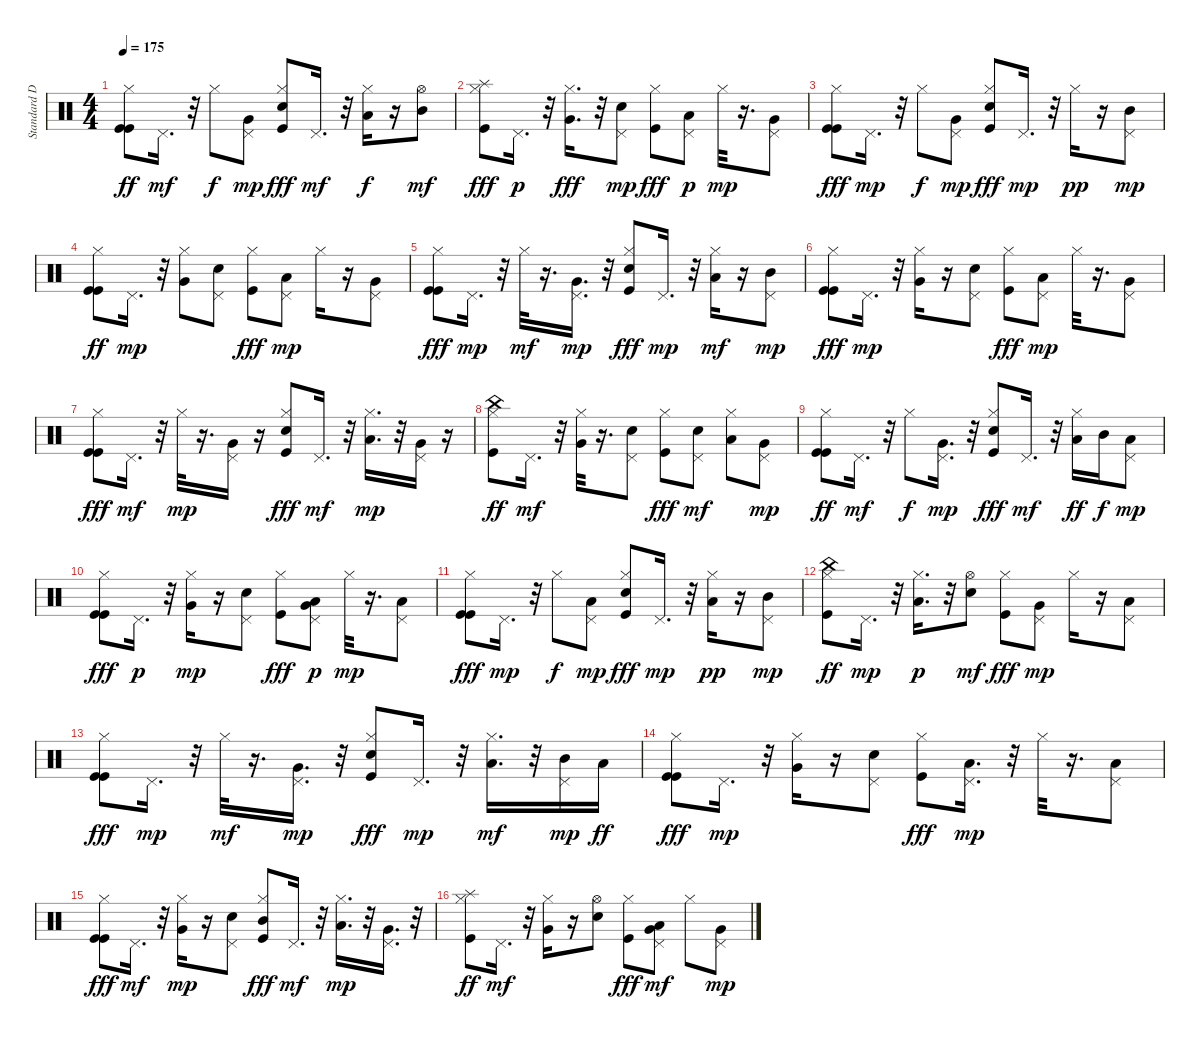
\track ("Standard Drums" "Standard D") {instrument percussion}
\staff {score}
\articulation defaults
\ts (4 4)
\tempo 175
\clef neutral
\ks c
("Kick (hit)" "Kick (hit)" "Hi-Hat (closed)").8{dy ff} "Pedal Hi-Hat (hit)".16{d dy mf} r.32 "Hi-Hat (closed)".8{dy f} ("Very Low Tom (hit)" "Pedal Hi-Hat (hit)").8{dy mp} ("Snare (hit) 2" "Kick (hit)" "Hi-Hat (closed)").8{dy fff} "Pedal Hi-Hat (hit)".16{d dy mf} r.32 ("Low Tom (hit)" "Hi-Hat (closed)").16{dy f} r.16 ("Mid Tom (hit)" "Hi-Hat (open)").8{dy mf} |
("Kick (hit)" "Splash (hit)" "Hi-Hat (closed)").8{dy fff} "Pedal Hi-Hat (hit)".16{d dy p} r.32 ("Very Low Tom (hit)" "Hi-Hat (closed)").16{d dy fff} r.32 ("Snare (hit) 2" "Pedal Hi-Hat (hit)").8{dy mp} ("Kick (hit)" "Hi-Hat (closed)").8{dy fff} ("Low Tom (hit)" "Pedal Hi-Hat (hit)").8{dy p} "Hi-Hat (closed)".32{dy mp} r.16{d} ("Very Low Tom (hit)" "Pedal Hi-Hat (hit)").8 |
("Kick (hit)" "Kick (hit)" "Hi-Hat (closed)").8{dy fff} "Pedal Hi-Hat (hit)".16{d dy mp} r.32 "Hi-Hat (closed)".8{dy f} ("Very Low Tom (hit)" "Pedal Hi-Hat (hit)").8{dy mp} ("Snare (hit) 2" "Kick (hit)" "Hi-Hat (closed)").8{dy fff} "Pedal Hi-Hat (hit)".16{d dy mp} r.32 "Hi-Hat (closed)".16{dy pp} r.16 ("Mid Tom (hit)" "Pedal Hi-Hat (hit)").8{dy mp} |
("Kick (hit)" "Kick (hit)" "Hi-Hat (closed)").8{dy ff} "Pedal Hi-Hat (hit)".16{d dy mp} r.32 ("Very Low Tom (hit)" "Hi-Hat (closed)").8 ("Snare (hit) 2" "Pedal Hi-Hat (hit)").8 ("Kick (hit)" "Hi-Hat (closed)").8{dy fff} ("Low Tom (hit)" "Pedal Hi-Hat (hit)").8{dy mp} "Hi-Hat (closed)".16 r.16 ("Very Low Tom (hit)" "Pedal Hi-Hat (hit)").8 |
("Kick (hit)" "Kick (hit)" "Hi-Hat (closed)").8{dy fff} "Pedal Hi-Hat (hit)".16{d dy mp} r.32 "Hi-Hat (closed)".32{dy mf} r.16{d} ("Very Low Tom (hit)" "Pedal Hi-Hat (hit)").16{d dy mp} r.32 ("Snare (hit) 2" "Kick (hit)" "Hi-Hat (closed)").8{dy fff} "Pedal Hi-Hat (hit)".16{d dy mp} r.32 ("Low Tom (hit)" "Hi-Hat (closed)").16{dy mf} r.16 ("Mid Tom (hit)" "Pedal Hi-Hat (hit)").8{dy mp} |
("Kick (hit)" "Kick (hit)" "Hi-Hat (closed)").8{dy fff} "Pedal Hi-Hat (hit)".16{d dy mp} r.32 ("Very Low Tom (hit)" "Hi-Hat (closed)").16 r.16 ("Snare (hit) 2" "Pedal Hi-Hat (hit)").8 ("Kick (hit)" "Hi-Hat (closed)").8{dy fff} ("Low Tom (hit)" "Pedal Hi-Hat (hit)").8{dy mp} "Hi-Hat (closed)".32 r.16{d} ("Very Low Tom (hit)" "Pedal Hi-Hat (hit)").8 |
("Kick (hit)" "Kick (hit)" "Hi-Hat (closed)").8{dy fff} "Pedal Hi-Hat (hit)".16{d dy mf} r.32 "Hi-Hat (closed)".32{dy mp} r.16{d} ("Very Low Tom (hit)" "Pedal Hi-Hat (hit)").16 r.16 ("Snare (hit) 2" "Kick (hit)" "Hi-Hat (closed)").8{dy fff} "Pedal Hi-Hat (hit)".16{d dy mf} r.32 ("Low Tom (hit)" "Hi-Hat (closed)").16{d dy mp} r.32 ("Very Low Tom (hit)" "Pedal Hi-Hat (hit)").16 r.16 |
("Kick (hit)" "China (hit)" "Hi-Hat (closed)").8{dy ff} "Pedal Hi-Hat (hit)".16{d dy mf} r.32 ("Very Low Tom (hit)" "Hi-Hat (closed)").32 r.16{d} ("Snare (hit) 2" "Pedal Hi-Hat (hit)").8 ("Kick (hit)" "Hi-Hat (closed)").8{dy fff} ("Electric Snare (hit)" "Pedal Hi-Hat (hit)").8{dy mf} ("Low Tom (hit)" "Hi-Hat (closed)").8 ("Very Low Tom (hit)" "Pedal Hi-Hat (hit)").8{dy mp} |
("Kick (hit)" "Kick (hit)" "Hi-Hat (closed)").8{dy ff} "Pedal Hi-Hat (hit)".16{d dy mf} r.32 "Hi-Hat (closed)".8{dy f} ("Very Low Tom (hit)" "Pedal Hi-Hat (hit)").16{d dy mp} r.32 ("Snare (hit) 2" "Kick (hit)" "Hi-Hat (closed)").8{dy fff} "Pedal Hi-Hat (hit)".16{d dy mf} r.32 ("Low Tom (hit)" "Hi-Hat (closed)").16{dy ff} "Mid Tom (hit)".16{dy f} ("Low Tom (hit)" "Pedal Hi-Hat (hit)").8{dy mp} |
("Kick (hit)" "Kick (hit)" "Hi-Hat (closed)").8{dy fff} "Pedal Hi-Hat (hit)".16{d dy p} r.32 ("Very Low Tom (hit)" "Hi-Hat (closed)").16{dy mp} r.16 ("Snare (hit) 2" "Pedal Hi-Hat (hit)").8 ("Kick (hit)" "Hi-Hat (closed)").8{dy fff} ("Very Low Tom (hit)" "Low Floor Tom (hit)" "Pedal Hi-Hat (hit)").8{dy p} "Hi-Hat (closed)".32{dy mp} r.16{d} ("Low Tom (hit)" "Pedal Hi-Hat (hit)").8 |
("Kick (hit)" "Kick (hit)" "Hi-Hat (closed)").8{dy fff} "Pedal Hi-Hat (hit)".16{d dy mp} r.32 "Hi-Hat (closed)".8{dy f} ("Low Tom (hit)" "Pedal Hi-Hat (hit)").8{dy mp} ("Snare (hit) 2" "Kick (hit)" "Hi-Hat (closed)").8{dy fff} "Pedal Hi-Hat (hit)".16{d dy mp} r.32 ("Low Tom (hit)" "Hi-Hat (closed)").16{dy pp} r.16 ("Mid Tom (hit)" "Pedal Hi-Hat (hit)").8{dy mp} |
("Kick (hit)" "China (hit)" "Hi-Hat (closed)").8{dy ff} "Pedal Hi-Hat (hit)".16{d dy mp} r.32 ("Low Tom (hit)" "Hi-Hat (closed)").16{d dy p} r.32 ("Snare (hit) 2" "Hi-Hat (open)").8{dy mf} ("Kick (hit)" "Hi-Hat (closed)").8{dy fff} ("Very Low Tom (hit)" "Pedal Hi-Hat (hit)").8{dy mp} "Hi-Hat (closed)".16 r.16 ("Low Tom (hit)" "Pedal Hi-Hat (hit)").8 |
("Kick (hit)" "Kick (hit)" "Hi-Hat (closed)").8{dy fff} "Pedal Hi-Hat (hit)".16{d dy mp} r.32 "Hi-Hat (closed)".32{dy mf} r.16{d} ("Very Low Tom (hit)" "Pedal Hi-Hat (hit)").16{d dy mp} r.32 ("Snare (hit) 2" "Kick (hit)" "Hi-Hat (closed)").8{dy fff} "Pedal Hi-Hat (hit)".16{d dy mp} r.32 ("Low Tom (hit)" "Hi-Hat (closed)").16{d dy mf} r.32 ("Mid Tom (hit)" "Pedal Hi-Hat (hit)").16{dy mp} "Low Tom (hit)".16{dy ff} |
("Kick (hit)" "Kick (hit)" "Hi-Hat (closed)").8{dy fff} "Pedal Hi-Hat (hit)".16{d dy mp} r.32 ("Very Low Tom (hit)" "Hi-Hat (closed)").16 r.16 ("Snare (hit) 2" "Pedal Hi-Hat (hit)").8 ("Kick (hit)" "Hi-Hat (closed)").8{dy fff} ("Low Tom (hit)" "Pedal Hi-Hat (hit)").16{d dy mp} r.32 "Hi-Hat (closed)".32 r.16{d} ("Low Tom (hit)" "Pedal Hi-Hat (hit)").8 |
("Kick (hit)" "Kick (hit)" "Hi-Hat (closed)").8{dy fff} "Pedal Hi-Hat (hit)".16{d dy mf} r.32 ("Very Low Tom (hit)" "Hi-Hat (closed)").16{dy mp} r.16 ("Snare (hit) 2" "Pedal Hi-Hat (hit)").8 ("Mid Tom (hit)" "Kick (hit)" "Hi-Hat (closed)").8{dy fff} "Pedal Hi-Hat (hit)".16{d dy mf} r.32 ("Low Tom (hit)" "Hi-Hat (closed)").16{d dy mp} r.32 ("Very Low Tom (hit)" "Pedal Hi-Hat (hit)").16{d} r.32 |
("Kick (hit)" "Splash (hit)" "Hi-Hat (closed)").8{dy ff} "Pedal Hi-Hat (hit)".16{d dy mf} r.32 ("Very Low Tom (hit)" "Hi-Hat (closed)").16 r.16 ("Snare (hit) 2" "Hi-Hat (open)").8 ("Kick (hit)" "Hi-Hat (closed)").8{dy fff} ("Low Tom (hit)" "Very Low Tom (hit)" "Pedal Hi-Hat (hit)").8{dy mf} "Hi-Hat (closed)".8 ("Very Low Tom (hit)" "Pedal Hi-Hat (hit)").8{dy mp}
